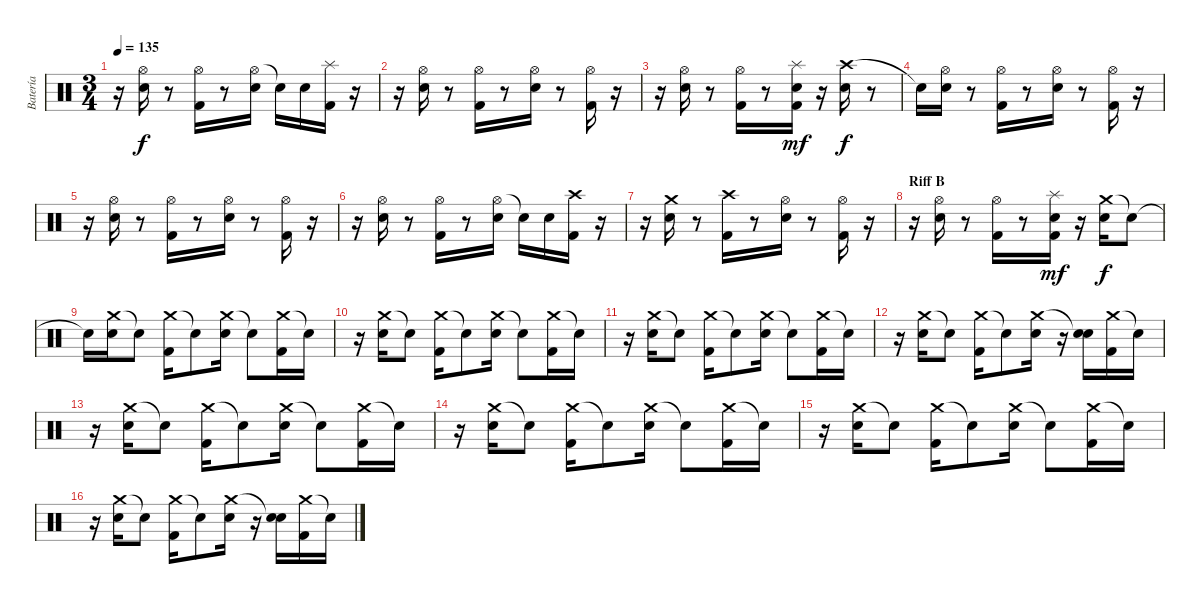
\track ("Batería" "Batería") {instrument percussion}
\staff {score}
\articulation defaults
\ts (3 4)
\tempo 135
\clef neutral
\ks c
r.16{dy f} ("Hi-Hat (open)" "Snare (hit) 2").16 r.8 ("Hi-Hat (open)" "Kick (hit) 2").16 r.8 ("Hi-Hat (open)" "Snare (hit) 2").16 "Snare (hit)"{t}.16 "Snare (hit) 2".16 ("Splash (hit)" "Kick (hit) 2").16 r.16 |
r.16 ("Hi-Hat (open)" "Snare (hit) 2").16 r.8 ("Hi-Hat (open)" "Kick (hit) 2").16 r.8 ("Hi-Hat (open)" "Snare (hit) 2").16 r.8 ("Hi-Hat (open)" "Kick (hit) 2").16 r.16 |
r.16 ("Hi-Hat (open)" "Snare (hit) 2").16 r.8 ("Hi-Hat (open)" "Kick (hit) 2").16 r.8 ("Splash (hit)" "Snare (hit) 2" "Kick (hit) 2").16{dy mf} r.16 ("Crash high (hit)" "Snare (hit) 2").16{dy f} r.8 |
"Snare (hit)"{t}.16 ("Hi-Hat (open)" "Snare (hit) 2").16 r.8 ("Hi-Hat (open)" "Kick (hit) 2").16 r.8 ("Hi-Hat (open)" "Snare (hit) 2").16 r.8 ("Hi-Hat (open)" "Kick (hit) 2").16 r.16 |
r.16 ("Hi-Hat (open)" "Snare (hit) 2").16 r.8 ("Hi-Hat (open)" "Kick (hit) 2").16 r.8 ("Hi-Hat (open)" "Snare (hit) 2").16 r.8 ("Hi-Hat (open)" "Kick (hit) 2").16 r.16 |
r.16 ("Hi-Hat (open)" "Snare (hit) 2").16 r.8 ("Hi-Hat (open)" "Kick (hit) 2").16 r.8 ("Hi-Hat (open)" "Snare (hit) 2").16 "Snare (hit)"{t}.16 "Snare (hit) 2".16 ("Crash high (hit)" "Kick (hit) 2").16 r.16 |
r.16 ("Crash medium (hit)" "Snare (hit) 2").16 r.8 ("Crash high (hit)" "Kick (hit) 2").16 r.8 ("Hi-Hat (open)" "Snare (hit) 2").16 r.8 ("Hi-Hat (open)" "Kick (hit) 2").16 r.16 |
\section ("" "Riff B")
r.16 ("Hi-Hat (open)" "Snare (hit) 2").16 r.8 ("Hi-Hat (open)" "Kick (hit) 2").16 r.8 ("Splash (hit)" "Snare (hit) 2" "Kick (hit) 2").16{dy mf} r.16 ("Crash medium (hit)" "Snare (hit) 2").16{dy f} "Snare (hit)"{t}.8 |
"Snare (hit)"{t}.16 ("Crash medium (hit)" "Snare (hit) 2").16 "Snare (hit)"{t}.8 ("Crash medium (hit)" "Kick (hit) 2").16 "Snare (hit)"{t}.8 ("Crash medium (hit)" "Snare (hit) 2").16 "Snare (hit)"{t}.8 ("Crash medium (hit)" "Kick (hit) 2").16 "Snare (hit)"{t}.16 |
r.16 ("Crash medium (hit)" "Snare (hit) 2").16 "Snare (hit)"{t}.8 ("Crash medium (hit)" "Kick (hit) 2").16 "Snare (hit)"{t}.8 ("Crash medium (hit)" "Snare (hit) 2").16 "Snare (hit)"{t}.8 ("Crash medium (hit)" "Kick (hit) 2").16 "Snare (hit)"{t}.16 |
r.16 ("Crash medium (hit)" "Snare (hit) 2").16 "Snare (hit)"{t}.8 ("Crash medium (hit)" "Kick (hit) 2").16 "Snare (hit)"{t}.8 ("Crash medium (hit)" "Snare (hit) 2").16 "Snare (hit)"{t}.8 ("Crash medium (hit)" "Kick (hit) 2").16 "Snare (hit)"{t}.16 |
r.16 ("Crash medium (hit)" "Snare (hit) 2").16 "Snare (hit)"{t}.8 ("Crash medium (hit)" "Kick (hit) 2").16 "Snare (hit)"{t}.8 ("Crash medium (hit)" "Snare (hit) 2").16 r.16 ("Snare (hit)"{t} "Snare (hit) 2").16 ("Crash medium (hit)" "Kick (hit) 2").16 "Snare (hit)"{t}.16 |
r.16 ("Crash medium (hit)" "Snare (hit) 2").16 "Snare (hit)"{t}.8 ("Crash medium (hit)" "Kick (hit) 2").16 "Snare (hit)"{t}.8 ("Crash medium (hit)" "Snare (hit) 2").16 "Snare (hit)"{t}.8 ("Crash medium (hit)" "Kick (hit) 2").16 "Snare (hit)"{t}.16 |
r.16 ("Crash medium (hit)" "Snare (hit) 2").16 "Snare (hit)"{t}.8 ("Crash medium (hit)" "Kick (hit) 2").16 "Snare (hit)"{t}.8 ("Crash medium (hit)" "Snare (hit) 2").16 "Snare (hit)"{t}.8 ("Crash medium (hit)" "Kick (hit) 2").16 "Snare (hit)"{t}.16 |
r.16 ("Crash medium (hit)" "Snare (hit) 2").16 "Snare (hit)"{t}.8 ("Crash medium (hit)" "Kick (hit) 2").16 "Snare (hit)"{t}.8 ("Crash medium (hit)" "Snare (hit) 2").16 "Snare (hit)"{t}.8 ("Crash medium (hit)" "Kick (hit) 2").16 "Snare (hit)"{t}.16 |
r.16 ("Crash medium (hit)" "Snare (hit) 2").16 "Snare (hit)"{t}.8 ("Crash medium (hit)" "Kick (hit) 2").16 "Snare (hit)"{t}.8 ("Crash medium (hit)" "Snare (hit) 2").16 r.16 ("Snare (hit)"{t} "Snare (hit) 2").16 ("Crash medium (hit)" "Kick (hit) 2").16 "Snare (hit)"{t}.16
